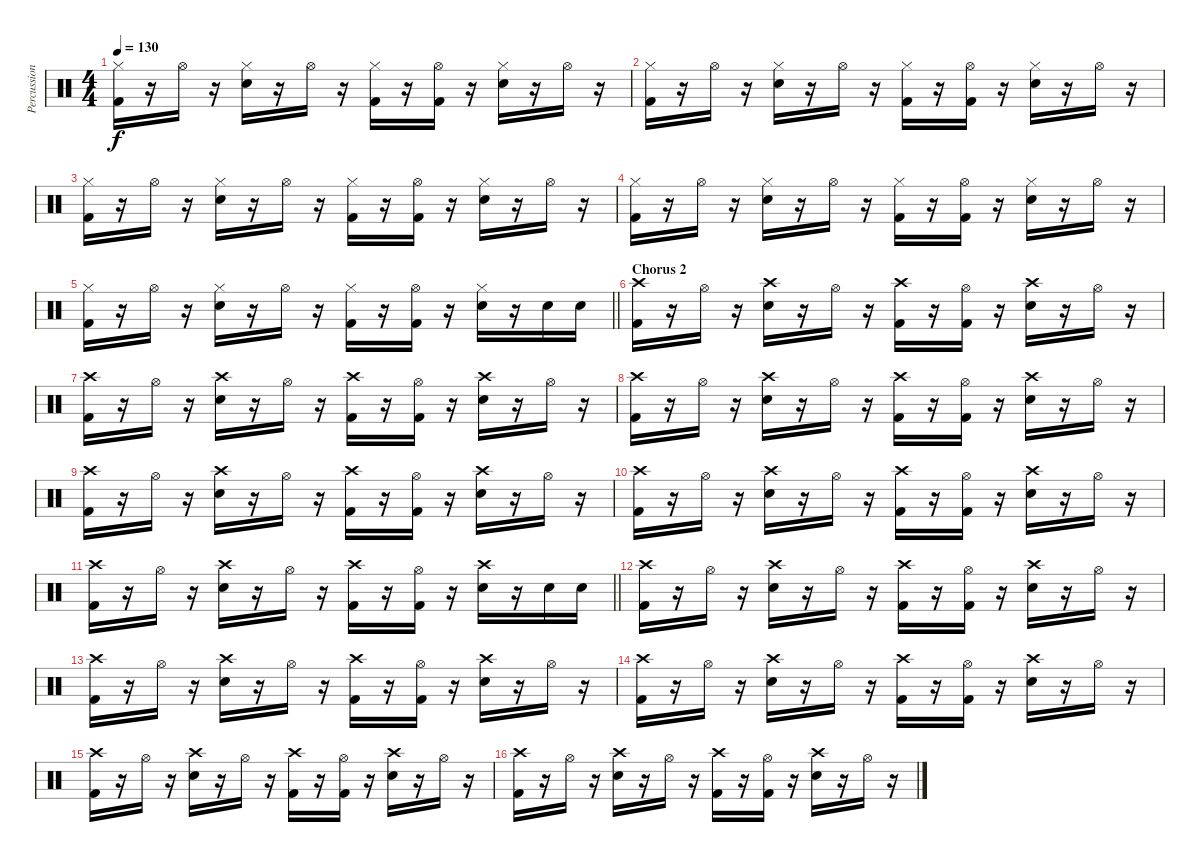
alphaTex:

\track ("Percussion" "Percussion") {instrument percussion}
\staff {score}
\articulation defaults
\ts (4 4)
\tempo 130
\clef neutral
\ks c
("Hi-Hat (closed)" "Kick (hit) 2").16{dy f} r.16 "Hi-Hat (open)".16 r.16 ("Hi-Hat (closed)" "Snare (hit) 2").16 r.16 "Hi-Hat (open)".16 r.16 ("Hi-Hat (closed)" "Kick (hit) 2").16 r.16 ("Hi-Hat (open)" "Kick (hit) 2").16 r.16 ("Hi-Hat (closed)" "Snare (hit) 2").16 r.16 "Hi-Hat (open)".16 r.16 |
("Hi-Hat (closed)" "Kick (hit) 2").16 r.16 "Hi-Hat (open)".16 r.16 ("Hi-Hat (closed)" "Snare (hit) 2").16 r.16 "Hi-Hat (open)".16 r.16 ("Hi-Hat (closed)" "Kick (hit) 2").16 r.16 ("Hi-Hat (open)" "Kick (hit) 2").16 r.16 ("Hi-Hat (closed)" "Snare (hit) 2").16 r.16 "Hi-Hat (open)".16 r.16 |
("Hi-Hat (closed)" "Kick (hit) 2").16 r.16 "Hi-Hat (open)".16 r.16 ("Hi-Hat (closed)" "Snare (hit) 2").16 r.16 "Hi-Hat (open)".16 r.16 ("Hi-Hat (closed)" "Kick (hit) 2").16 r.16 ("Hi-Hat (open)" "Kick (hit) 2").16 r.16 ("Hi-Hat (closed)" "Snare (hit) 2").16 r.16 "Hi-Hat (open)".16 r.16 |
("Hi-Hat (closed)" "Kick (hit) 2").16 r.16 "Hi-Hat (open)".16 r.16 ("Hi-Hat (closed)" "Snare (hit) 2").16 r.16 "Hi-Hat (open)".16 r.16 ("Hi-Hat (closed)" "Kick (hit) 2").16 r.16 ("Hi-Hat (open)" "Kick (hit) 2").16 r.16 ("Hi-Hat (closed)" "Snare (hit) 2").16 r.16 "Hi-Hat (open)".16 r.16 |
\barLineRight lightlight
("Hi-Hat (closed)" "Kick (hit) 2").16 r.16 "Hi-Hat (open)".16 r.16 ("Hi-Hat (closed)" "Snare (hit) 2").16 r.16 "Hi-Hat (open)".16 r.16 ("Hi-Hat (closed)" "Kick (hit) 2").16 r.16 ("Hi-Hat (open)" "Kick (hit) 2").16 r.16 ("Hi-Hat (closed)" "Snare (hit) 2").16 r.16 "Snare (hit) 2".16 "Snare (hit) 2".16 |
\section ("" "Chorus 2")
("Crash high (hit)" "Kick (hit) 2").16 r.16 "Hi-Hat (open)".16 r.16 ("Crash high (hit)" "Snare (hit) 2").16 r.16 "Hi-Hat (open)".16 r.16 ("Crash high (hit)" "Kick (hit) 2").16 r.16 ("Hi-Hat (open)" "Kick (hit) 2").16 r.16 ("Crash high (hit)" "Snare (hit) 2").16 r.16 "Hi-Hat (open)".16 r.16 |
("Crash high (hit)" "Kick (hit) 2").16 r.16 "Hi-Hat (open)".16 r.16 ("Crash high (hit)" "Snare (hit) 2").16 r.16 "Hi-Hat (open)".16 r.16 ("Crash high (hit)" "Kick (hit) 2").16 r.16 ("Hi-Hat (open)" "Kick (hit) 2").16 r.16 ("Crash high (hit)" "Snare (hit) 2").16 r.16 "Hi-Hat (open)".16 r.16 |
("Crash high (hit)" "Kick (hit) 2").16 r.16 "Hi-Hat (open)".16 r.16 ("Crash high (hit)" "Snare (hit) 2").16 r.16 "Hi-Hat (open)".16 r.16 ("Crash high (hit)" "Kick (hit) 2").16 r.16 ("Hi-Hat (open)" "Kick (hit) 2").16 r.16 ("Crash high (hit)" "Snare (hit) 2").16 r.16 "Hi-Hat (open)".16 r.16 |
("Crash high (hit)" "Kick (hit) 2").16 r.16 "Hi-Hat (open)".16 r.16 ("Crash high (hit)" "Snare (hit) 2").16 r.16 "Hi-Hat (open)".16 r.16 ("Crash high (hit)" "Kick (hit) 2").16 r.16 ("Hi-Hat (open)" "Kick (hit) 2").16 r.16 ("Crash high (hit)" "Snare (hit) 2").16 r.16 "Hi-Hat (open)".16 r.16 |
("Crash high (hit)" "Kick (hit) 2").16 r.16 "Hi-Hat (open)".16 r.16 ("Crash high (hit)" "Snare (hit) 2").16 r.16 "Hi-Hat (open)".16 r.16 ("Crash high (hit)" "Kick (hit) 2").16 r.16 ("Hi-Hat (open)" "Kick (hit) 2").16 r.16 ("Crash high (hit)" "Snare (hit) 2").16 r.16 "Hi-Hat (open)".16 r.16 |
\barLineRight lightlight
("Crash high (hit)" "Kick (hit) 2").16 r.16 "Hi-Hat (open)".16 r.16 ("Crash high (hit)" "Snare (hit) 2").16 r.16 "Hi-Hat (open)".16 r.16 ("Crash high (hit)" "Kick (hit) 2").16 r.16 ("Hi-Hat (open)" "Kick (hit) 2").16 r.16 ("Crash high (hit)" "Snare (hit) 2").16 r.16 "Snare (hit) 2".16 "Snare (hit) 2".16 |
("Crash high (hit)" "Kick (hit) 2").16 r.16 "Hi-Hat (open)".16 r.16 ("Crash high (hit)" "Snare (hit) 2").16 r.16 "Hi-Hat (open)".16 r.16 ("Crash high (hit)" "Kick (hit) 2").16 r.16 ("Hi-Hat (open)" "Kick (hit) 2").16 r.16 ("Crash high (hit)" "Snare (hit) 2").16 r.16 "Hi-Hat (open)".16 r.16 |
("Crash high (hit)" "Kick (hit) 2").16 r.16 "Hi-Hat (open)".16 r.16 ("Crash high (hit)" "Snare (hit) 2").16 r.16 "Hi-Hat (open)".16 r.16 ("Crash high (hit)" "Kick (hit) 2").16 r.16 ("Hi-Hat (open)" "Kick (hit) 2").16 r.16 ("Crash high (hit)" "Snare (hit) 2").16 r.16 "Hi-Hat (open)".16 r.16 |
("Crash high (hit)" "Kick (hit) 2").16 r.16 "Hi-Hat (open)".16 r.16 ("Crash high (hit)" "Snare (hit) 2").16 r.16 "Hi-Hat (open)".16 r.16 ("Crash high (hit)" "Kick (hit) 2").16 r.16 ("Hi-Hat (open)" "Kick (hit) 2").16 r.16 ("Crash high (hit)" "Snare (hit) 2").16 r.16 "Hi-Hat (open)".16 r.16 |
("Crash high (hit)" "Kick (hit) 2").16 r.16 "Hi-Hat (open)".16 r.16 ("Crash high (hit)" "Snare (hit) 2").16 r.16 "Hi-Hat (open)".16 r.16 ("Crash high (hit)" "Kick (hit) 2").16 r.16 ("Hi-Hat (open)" "Kick (hit) 2").16 r.16 ("Crash high (hit)" "Snare (hit) 2").16 r.16 "Hi-Hat (open)".16 r.16 |
("Crash high (hit)" "Kick (hit) 2").16 r.16 "Hi-Hat (open)".16 r.16 ("Crash high (hit)" "Snare (hit) 2").16 r.16 "Hi-Hat (open)".16 r.16 ("Crash high (hit)" "Kick (hit) 2").16 r.16 ("Hi-Hat (open)" "Kick (hit) 2").16 r.16 ("Crash high (hit)" "Snare (hit) 2").16 r.16 "Hi-Hat (open)".16 r.16
